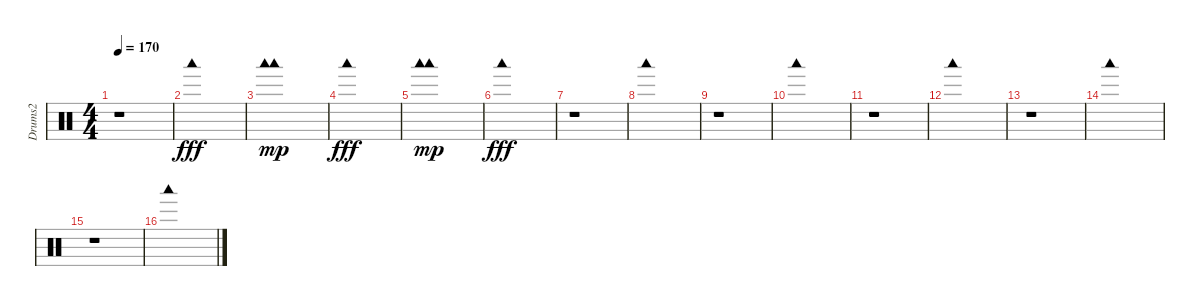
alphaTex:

\track ("Drums2" "Drums2") {instrument percussion}
\staff {score}
\articulation defaults
\ts (4 4)
\tempo 170
\clef neutral
\ks c
r.1{dy fff} |
"Woodblock low (hit)".1 |
("Woodblock low (hit)" "Woodblock low (hit)").1{dy mp} |
"Woodblock low (hit)".1{dy fff} |
("Woodblock low (hit)" "Woodblock low (hit)").1{dy mp} |
"Woodblock low (hit)".1{dy fff} |
r.1 |
"Woodblock low (hit)".1 |
r.1 |
"Woodblock low (hit)".1 |
r.1 |
"Woodblock low (hit)".1 |
r.1 |
"Woodblock low (hit)".1 |
r.1 |
"Woodblock low (hit)".1
